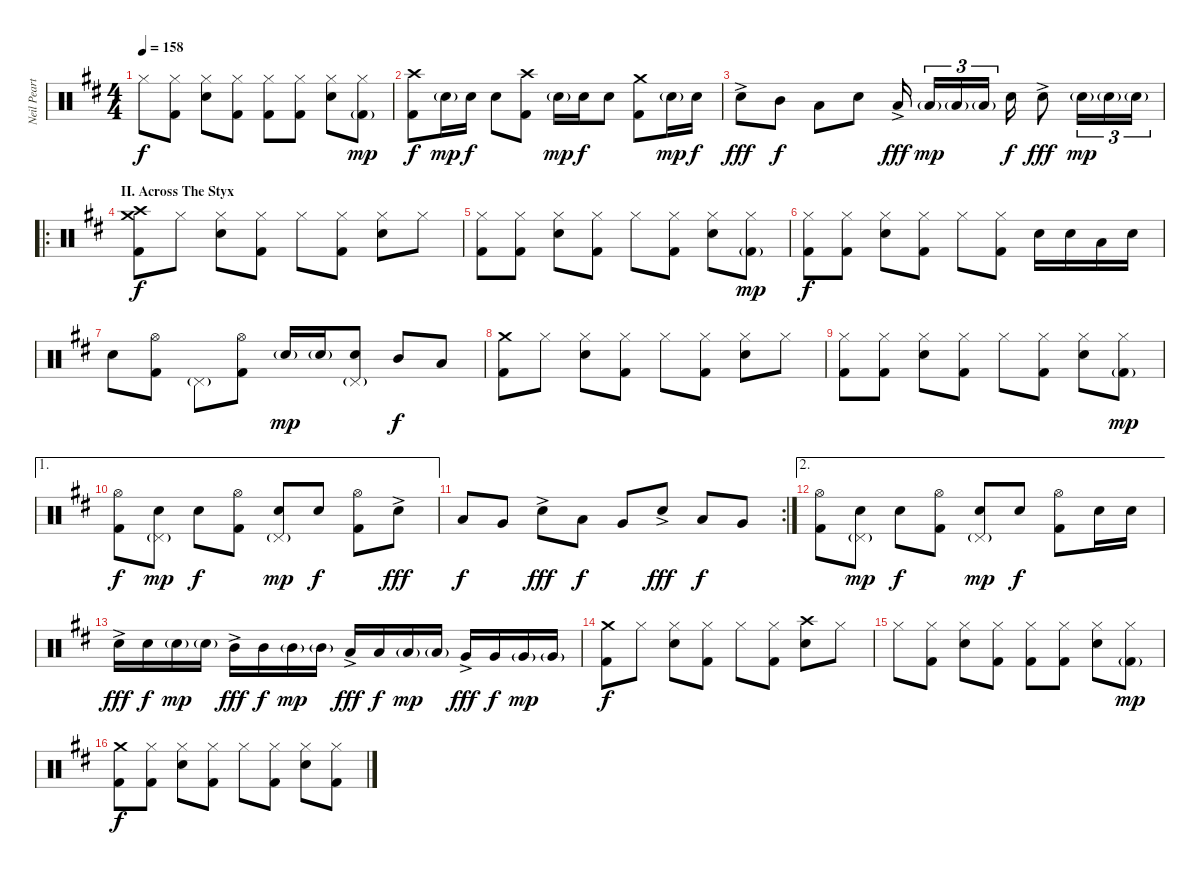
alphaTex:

\track ("Neil Peart (drums)" "Neil Peart") {instrument percussion}
\staff {score}
\articulation defaults
\ts (4 4)
\tempo 158
\clef neutral
\ks d "Hi-Hat (closed)".8{dy f}
("Hi-Hat (closed)" "Kick (hit) 2").8 ("Hi-Hat (closed)" "Electric Snare (hit)").8 ("Hi-Hat (closed)" "Kick (hit) 2").8 ("Hi-Hat (closed)" "Kick (hit) 2").8 ("Hi-Hat (closed)" "Kick (hit) 2").8 ("Hi-Hat (closed)" "Electric Snare (hit)").8 ("Hi-Hat (closed)" "Kick (hit) 2"{g}).8{dy mp} |
("Crash high (hit)" "Kick (hit) 2").8{dy f} "Electric Snare (hit)"{g}.16{dy mp} "Electric Snare (hit)".16{dy f} "Electric Snare (hit)".8 ("Crash high (hit)" "Kick (hit) 2").8 "Electric Snare (hit)"{g}.16{dy mp} "Electric Snare (hit)".16{dy f} "Electric Snare (hit)".8 ("Crash medium (hit)" "Kick (hit) 2").8 "Electric Snare (hit)"{g}.16{dy mp} "Electric Snare (hit)".16{dy f} |
"Electric Snare (hit)"{ac}.8{dy fff} "Mid Tom (hit)".8{dy f} "Low Tom (hit)".8 "Electric Snare (hit)".8 "Low Tom (hit)"{ac}.16{dy fff} "Low Tom (hit)"{g}.16{tu (3 2) dy mp} "Low Tom (hit)"{g}.16{tu (3 2)} "Low Tom (hit)"{g}.16{tu (3 2)} "Electric Snare (hit)".16{dy f} "Electric Snare (hit)"{ac}.8{dy fff} "Electric Snare (hit)"{g}.16{tu (3 2) dy mp} "Electric Snare (hit)"{g}.16{tu (3 2)} "Electric Snare (hit)"{g}.16{tu (3 2)} |
\ro
\section ("" "II. Across The Styx")
("Crash high (hit)" "Crash medium (hit)" "Kick (hit) 2").8{dy f} "Hi-Hat (closed)".8 ("Hi-Hat (closed)" "Electric Snare (hit)").8 ("Hi-Hat (closed)" "Kick (hit) 2").8 "Hi-Hat (closed)".8 ("Hi-Hat (closed)" "Kick (hit) 2").8 ("Hi-Hat (closed)" "Electric Snare (hit)").8 "Hi-Hat (closed)".8 |
("Hi-Hat (closed)" "Kick (hit) 2").8 ("Hi-Hat (closed)" "Kick (hit) 2").8 ("Hi-Hat (closed)" "Electric Snare (hit)").8 ("Hi-Hat (closed)" "Kick (hit) 2").8 "Hi-Hat (closed)".8 ("Hi-Hat (closed)" "Kick (hit) 2").8 ("Hi-Hat (closed)" "Electric Snare (hit)").8 ("Hi-Hat (closed)" "Kick (hit) 2"{g}).8{dy mp} |
("Hi-Hat (closed)" "Kick (hit) 2").8{dy f} ("Hi-Hat (closed)" "Kick (hit) 2").8 ("Hi-Hat (closed)" "Electric Snare (hit)").8 ("Hi-Hat (closed)" "Kick (hit) 2").8 "Hi-Hat (closed)".8 ("Hi-Hat (closed)" "Kick (hit) 2").8 "Electric Snare (hit)".16 "Electric Snare (hit)".16 "Low Tom (hit)".16 "Electric Snare (hit)".16 |
"Electric Snare (hit)".8 ("Hi-Hat (open)" "Kick (hit) 2").8 "Pedal Hi-Hat (hit)"{g}.8 ("Hi-Hat (open)" "Kick (hit) 2").8 "Electric Snare (hit)"{g}.16{dy mp} "Electric Snare (hit)"{g}.16 ("Electric Snare (hit)" "Pedal Hi-Hat (hit)"{g}).8 "Mid Tom (hit)".8{dy f} "Low Tom (hit)".8 |
("Crash medium (hit)" "Kick (hit) 2").8 "Hi-Hat (closed)".8 ("Hi-Hat (closed)" "Electric Snare (hit)").8 ("Hi-Hat (closed)" "Kick (hit) 2").8 "Hi-Hat (closed)".8 ("Hi-Hat (closed)" "Kick (hit) 2").8 ("Hi-Hat (closed)" "Electric Snare (hit)").8 "Hi-Hat (closed)".8 |
("Hi-Hat (closed)" "Kick (hit) 2").8 ("Hi-Hat (closed)" "Kick (hit) 2").8 ("Hi-Hat (closed)" "Electric Snare (hit)").8 ("Hi-Hat (closed)" "Kick (hit) 2").8 "Hi-Hat (closed)".8 ("Hi-Hat (closed)" "Kick (hit) 2").8 ("Hi-Hat (closed)" "Electric Snare (hit)").8 ("Hi-Hat (closed)" "Kick (hit) 2"{g}).8{dy mp} |
\ae 1
("Hi-Hat (open)" "Kick (hit) 2").8{dy f} ("Electric Snare (hit)" "Pedal Hi-Hat (hit)"{g}).8{dy mp} "Electric Snare (hit)".8{dy f} ("Hi-Hat (open)" "Kick (hit) 2").8 ("Electric Snare (hit)" "Pedal Hi-Hat (hit)"{g}).8{dy mp} "Electric Snare (hit)".8{dy f} ("Hi-Hat (open)" "Kick (hit) 2").8 "Electric Snare (hit)"{ac}.8{dy fff} |
\rc 2 "Low Tom (hit)".8{dy f} "Very Low Tom (hit)".8 "Electric Snare (hit)"{ac}.8{dy fff} "Low Tom (hit)".8{dy f} "Very Low Tom (hit)".8 "Electric Snare (hit)"{ac}.8{dy fff} "Low Tom (hit)".8{dy f} "Very Low Tom (hit)".8
|
\ae 2
("Hi-Hat (open)" "Kick (hit) 2").8 ("Electric Snare (hit)" "Pedal Hi-Hat (hit)"{g}).8{dy mp} "Electric Snare (hit)".8{dy f} ("Hi-Hat (open)" "Kick (hit) 2").8 ("Electric Snare (hit)" "Pedal Hi-Hat (hit)"{g}).8{dy mp} "Electric Snare (hit)".8{dy f} ("Hi-Hat (open)" "Kick (hit) 2").8 "Electric Snare (hit)".16 "Electric Snare (hit)".16 |
"Electric Snare (hit)"{ac}.16{dy fff} "Electric Snare (hit)".16{dy f} "Electric Snare (hit)"{g}.16{dy mp} "Electric Snare (hit)"{g}.16 "Mid Tom (hit)"{ac}.16{dy fff} "Mid Tom (hit)".16{dy f} "Mid Tom (hit)"{g}.16{dy mp} "Mid Tom (hit)"{g}.16 "Low Tom (hit)"{ac}.16{dy fff} "Low Tom (hit)".16{dy f} "Low Tom (hit)"{g}.16{dy mp} "Low Tom (hit)"{g}.16 "Very Low Tom (hit)"{ac}.16{dy fff} "Very Low Tom (hit)".16{dy f} "Very Low Tom (hit)"{g}.16{dy mp} "Very Low Tom (hit)"{g}.16 |
("Crash medium (hit)" "Kick (hit) 2").8{dy f} "Hi-Hat (closed)".8 ("Hi-Hat (closed)" "Electric Snare (hit)").8 ("Hi-Hat (closed)" "Kick (hit) 2").8 "Hi-Hat (closed)".8 ("Hi-Hat (closed)" "Kick (hit) 2").8 ("Crash high (hit)" "Electric Snare (hit)").8 "Hi-Hat (closed)".8 |
"Hi-Hat (closed)".8 ("Hi-Hat (closed)" "Kick (hit) 2").8 ("Hi-Hat (closed)" "Electric Snare (hit)").8 ("Hi-Hat (closed)" "Kick (hit) 2").8 ("Hi-Hat (closed)" "Kick (hit) 2").8 ("Hi-Hat (closed)" "Kick (hit) 2").8 ("Hi-Hat (closed)" "Electric Snare (hit)").8 ("Hi-Hat (closed)" "Kick (hit) 2"{g}).8{dy mp} |
("Crash medium (hit)" "Kick (hit) 2").8{dy f} ("Hi-Hat (closed)" "Kick (hit) 2").8 ("Hi-Hat (closed)" "Electric Snare (hit)").8 ("Hi-Hat (closed)" "Kick (hit) 2").8 "Hi-Hat (closed)".8 ("Hi-Hat (closed)" "Kick (hit) 2").8 ("Hi-Hat (closed)" "Electric Snare (hit)").8 ("Hi-Hat (closed)" "Kick (hit) 2").8
